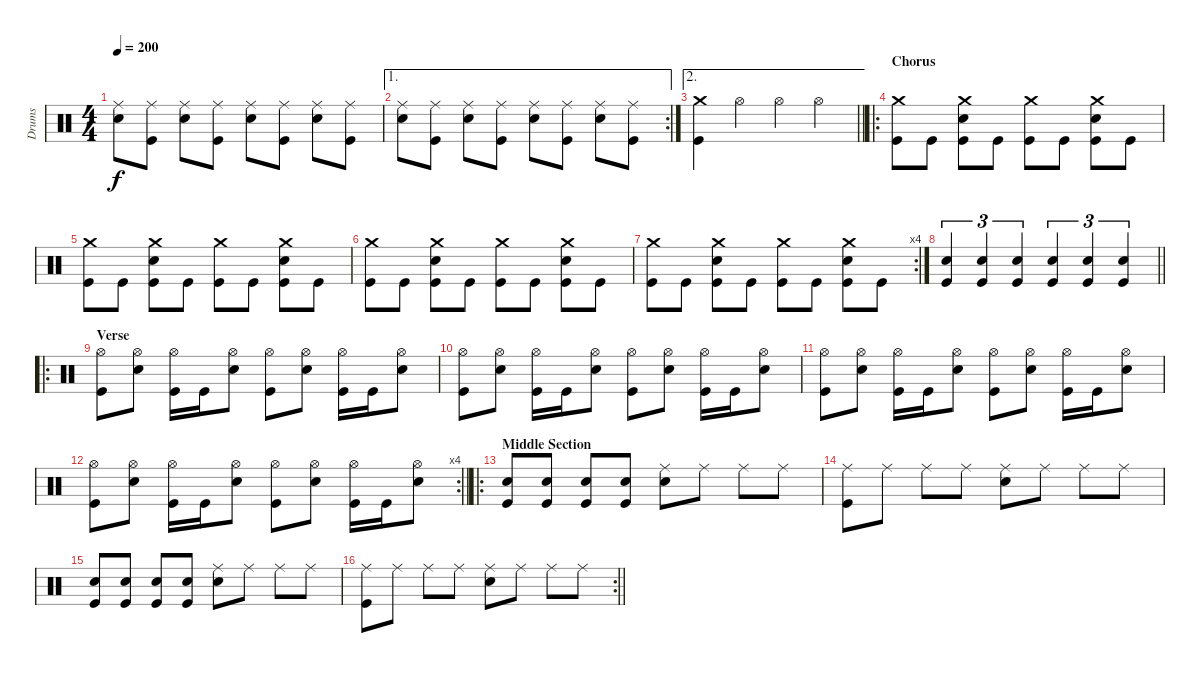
\track ("Drums" "Drums") {instrument percussion}
\staff {score}
\articulation defaults
\ts (4 4)
\tempo 200
\clef neutral
\ks c
("Ride (middle)" "Snare (hit) 2").8{dy f} ("Ride (middle)" "Kick (hit)").8 ("Ride (middle)" "Snare (hit) 2").8 ("Ride (middle)" "Kick (hit)").8 ("Ride (middle)" "Snare (hit) 2").8 ("Ride (middle)" "Kick (hit)").8 ("Ride (middle)" "Snare (hit) 2").8 ("Ride (middle)" "Kick (hit)").8 |
\ae 1
\rc 2
("Ride (middle)" "Snare (hit) 2").8 ("Ride (middle)" "Kick (hit)").8 ("Ride (middle)" "Snare (hit) 2").8 ("Ride (middle)" "Kick (hit)").8 ("Ride (middle)" "Snare (hit) 2").8 ("Ride (middle)" "Kick (hit)").8 ("Ride (middle)" "Snare (hit) 2").8 ("Ride (middle)" "Kick (hit)").8 |
\ae 2
\barLineRight lightlight
("Crash medium (hit)" "Kick (hit)").4 "Hi-Hat (open)".4 "Hi-Hat (open)".4 "Hi-Hat (open)".4 |
\ro
\section ("" "Chorus")
("Crash medium (hit)" "Kick (hit)").8 "Kick (hit)".8 ("Crash medium (hit)" "Snare (hit) 2" "Kick (hit)").8 "Kick (hit)".8 ("Crash medium (hit)" "Kick (hit)").8 "Kick (hit)".8 ("Crash medium (hit)" "Snare (hit) 2" "Kick (hit)").8 "Kick (hit)".8 |
("Crash medium (hit)" "Kick (hit)").8 "Kick (hit)".8 ("Crash medium (hit)" "Snare (hit) 2" "Kick (hit)").8 "Kick (hit)".8 ("Crash medium (hit)" "Kick (hit)").8 "Kick (hit)".8 ("Crash medium (hit)" "Snare (hit) 2" "Kick (hit)").8 "Kick (hit)".8 |
("Crash medium (hit)" "Kick (hit)").8 "Kick (hit)".8 ("Crash medium (hit)" "Snare (hit) 2" "Kick (hit)").8 "Kick (hit)".8 ("Crash medium (hit)" "Kick (hit)").8 "Kick (hit)".8 ("Crash medium (hit)" "Snare (hit) 2" "Kick (hit)").8 "Kick (hit)".8 |
\rc 4
("Crash medium (hit)" "Kick (hit)").8 "Kick (hit)".8 ("Crash medium (hit)" "Snare (hit) 2" "Kick (hit)").8 "Kick (hit)".8 ("Crash medium (hit)" "Kick (hit)").8 "Kick (hit)".8 ("Crash medium (hit)" "Snare (hit) 2" "Kick (hit)").8 "Kick (hit)".8 |
\barLineRight lightlight
("Snare (hit) 2" "Kick (hit)").4{tu (3 2)} ("Snare (hit) 2" "Kick (hit)").4{tu (3 2)} ("Snare (hit) 2" "Kick (hit)").4{tu (3 2)} ("Snare (hit) 2" "Kick (hit)").4{tu (3 2)} ("Snare (hit) 2" "Kick (hit)").4{tu (3 2)} ("Snare (hit) 2" "Kick (hit)").4{tu (3 2)} |
\ro
\section ("" "Verse")
("Hi-Hat (open)" "Kick (hit)").8 ("Hi-Hat (open)" "Snare (hit) 2").8 ("Hi-Hat (open)" "Kick (hit)").16 "Kick (hit)".16 ("Hi-Hat (open)" "Snare (hit) 2").8 ("Hi-Hat (open)" "Kick (hit)").8 ("Hi-Hat (open)" "Snare (hit) 2").8 ("Hi-Hat (open)" "Kick (hit)").16 "Kick (hit)".16 ("Hi-Hat (open)" "Snare (hit) 2").8 |
("Hi-Hat (open)" "Kick (hit)").8 ("Hi-Hat (open)" "Snare (hit) 2").8 ("Hi-Hat (open)" "Kick (hit)").16 "Kick (hit)".16 ("Hi-Hat (open)" "Snare (hit) 2").8 ("Hi-Hat (open)" "Kick (hit)").8 ("Hi-Hat (open)" "Snare (hit) 2").8 ("Hi-Hat (open)" "Kick (hit)").16 "Kick (hit)".16 ("Hi-Hat (open)" "Snare (hit) 2").8 |
("Hi-Hat (open)" "Kick (hit)").8 ("Hi-Hat (open)" "Snare (hit) 2").8 ("Hi-Hat (open)" "Kick (hit)").16 "Kick (hit)".16 ("Hi-Hat (open)" "Snare (hit) 2").8 ("Hi-Hat (open)" "Kick (hit)").8 ("Hi-Hat (open)" "Snare (hit) 2").8 ("Hi-Hat (open)" "Kick (hit)").16 "Kick (hit)".16 ("Hi-Hat (open)" "Snare (hit) 2").8 |
\rc 4
\barLineRight lightlight
("Hi-Hat (open)" "Kick (hit)").8 ("Hi-Hat (open)" "Snare (hit) 2").8 ("Hi-Hat (open)" "Kick (hit)").16 "Kick (hit)".16 ("Hi-Hat (open)" "Snare (hit) 2").8 ("Hi-Hat (open)" "Kick (hit)").8 ("Hi-Hat (open)" "Snare (hit) 2").8 ("Hi-Hat (open)" "Kick (hit)").16 "Kick (hit)".16 ("Hi-Hat (open)" "Snare (hit) 2").8 |
\ro
\section ("" "Middle Section")
("Snare (hit) 2" "Kick (hit)").8 ("Snare (hit) 2" "Kick (hit)").8 ("Snare (hit) 2" "Kick (hit)").8 ("Snare (hit) 2" "Kick (hit)").8 ("Ride (middle)" "Snare (hit) 2").8 "Ride (middle)".8 "Ride (middle)".8 "Ride (middle)".8 |
("Ride (middle)" "Kick (hit)").8 "Ride (middle)".8 "Ride (middle)".8 "Ride (middle)".8 ("Ride (middle)" "Snare (hit) 2").8 "Ride (middle)".8 "Ride (middle)".8 "Ride (middle)".8 |
("Snare (hit) 2" "Kick (hit)").8 ("Snare (hit) 2" "Kick (hit)").8 ("Snare (hit) 2" "Kick (hit)").8 ("Snare (hit) 2" "Kick (hit)").8 ("Ride (middle)" "Snare (hit) 2").8 "Ride (middle)".8 "Ride (middle)".8 "Ride (middle)".8 |
\rc 2
\barLineRight lightlight
("Ride (middle)" "Kick (hit)").8 "Ride (middle)".8 "Ride (middle)".8 "Ride (middle)".8 ("Ride (middle)" "Snare (hit) 2").8 "Ride (middle)".8 "Ride (middle)".8 "Ride (middle)".8
